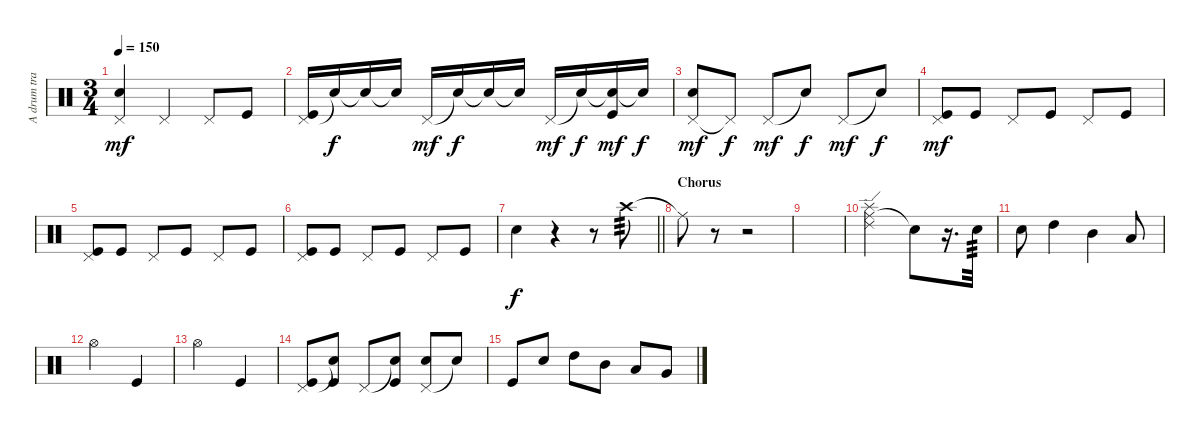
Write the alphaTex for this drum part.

\track ("A drum track I added for fun" "A drum tra") {instrument percussion}
\staff {score}
\articulation defaults
\ts (3 4)
\tempo 150
\clef neutral
\ks c
("Pedal Hi-Hat (hit)" "Electric Snare (hit)").4{dy mf} "Pedal Hi-Hat (hit)".4 "Pedal Hi-Hat (hit)".8 "Kick (hit)".8 |
("Pedal Hi-Hat (hit)" "Kick (hit)").16 "Snare (hit)"{t}.16{dy f} "Snare (hit)"{t}.16 "Snare (hit)"{t}.16 "Pedal Hi-Hat (hit)".16{dy mf} "Snare (hit)"{t}.16{dy f} "Snare (hit)"{t}.16 "Snare (hit)"{t}.16 "Pedal Hi-Hat (hit)".16{dy mf} "Snare (hit)"{t}.16{dy f} ("Snare (hit)"{t} "Kick (hit)").16{dy mf} "Snare (hit)"{t}.16{dy f} |
("Pedal Hi-Hat (hit)" "Electric Snare (hit)").8{dy mf} "Pedal Hi-Hat (hit)"{t}.8{dy f} "Pedal Hi-Hat (hit)".8{dy mf} "Snare (hit)"{t}.8{dy f} "Pedal Hi-Hat (hit)".8{dy mf} "Snare (hit)"{t}.8{dy f} |
("Pedal Hi-Hat (hit)" "Kick (hit)").8{dy mf} "Kick (hit)".8 "Pedal Hi-Hat (hit)".8 "Kick (hit)".8 "Pedal Hi-Hat (hit)".8 "Kick (hit)".8 |
("Pedal Hi-Hat (hit)" "Kick (hit)").8 "Kick (hit)".8 "Pedal Hi-Hat (hit)".8 "Kick (hit)".8 "Pedal Hi-Hat (hit)".8 "Kick (hit)".8 |
("Pedal Hi-Hat (hit)" "Kick (hit)").8 "Kick (hit)".8 "Pedal Hi-Hat (hit)".8 "Kick (hit)".8 "Pedal Hi-Hat (hit)".8 "Kick (hit)".8 |
\barLineRight lightlight "Electric Snare (hit)".4{dy f}
r.4 r.8{volume 0} "Crash high (hit)".8{tp 3 volume 16} |
\section ("" "Chorus")
"Ride (middle)"{t}.8 r.8 r.2 |
|
("Ride (middle)" "Ride (edge) 2" "Splash (hit)").2 "Snare (hit)"{t}.8 r.16{d} "Electric Snare (hit)".32{tp 3} |
"Electric Snare (hit)".8 "High Tom (hit)".4 "Mid Tom (hit)".4 "Low Tom (hit)".8 |
"Hi-Hat (open)".2 "Kick (hit)".4 |
"Hi-Hat (open)".2 "Kick (hit)".4 |
("Pedal Hi-Hat (hit)" "Kick (hit)").8 ("Snare (hit)"{t} "Kick (hit)").8 "Pedal Hi-Hat (hit)".8 ("Snare (hit)"{t} "Kick (hit)").8 ("Pedal Hi-Hat (hit)" "Electric Snare (hit)").8 "Snare (hit)"{t}.8 |
"Kick (hit)".8 "Electric Snare (hit)".8 "High Tom (hit)".8 "Mid Tom (hit)".8 "Low Tom (hit)".8 "Very Low Tom (hit)".8
